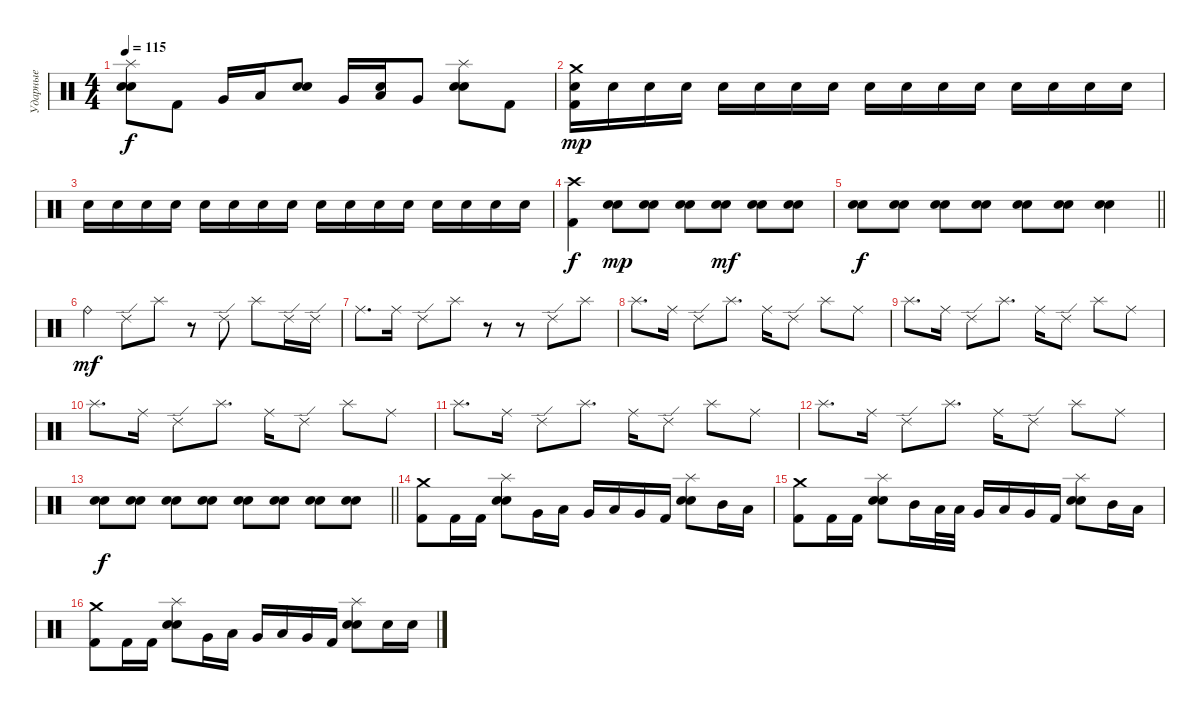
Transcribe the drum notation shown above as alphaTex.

\track ("Ударные" "Ударные") {instrument percussion}
\staff {score}
\articulation defaults
\ts (4 4)
\tempo 115
\clef neutral
\ks c
("Splash (hit)" "Electric Snare (hit)" "Snare (hit) 2").8{dy f} "Kick (hit) 2".8 "Very Low Tom (hit)".16 "Low Tom (hit)".16 ("Electric Snare (hit)" "Snare (hit) 2").8 "Very Low Tom (hit)".16 ("Electric Snare (hit)" "Low Tom (hit)").16 "Very Low Tom (hit)".8 ("Splash (hit)" "Electric Snare (hit)" "Snare (hit) 2").8 "Kick (hit) 2".8 |
("Crash medium (hit)" "Electric Snare (hit)" "Kick (hit) 2").16{dy mp} "Electric Snare (hit)".16 "Electric Snare (hit)".16 "Electric Snare (hit)".16 "Electric Snare (hit)".16 "Electric Snare (hit)".16 "Electric Snare (hit)".16 "Electric Snare (hit)".16 "Electric Snare (hit)".16 "Electric Snare (hit)".16 "Electric Snare (hit)".16 "Electric Snare (hit)".16 "Electric Snare (hit)".16 "Electric Snare (hit)".16 "Electric Snare (hit)".16 "Electric Snare (hit)".16 |
"Electric Snare (hit)".16 "Electric Snare (hit)".16 "Electric Snare (hit)".16 "Electric Snare (hit)".16 "Electric Snare (hit)".16 "Electric Snare (hit)".16 "Electric Snare (hit)".16 "Electric Snare (hit)".16 "Electric Snare (hit)".16 "Electric Snare (hit)".16 "Electric Snare (hit)".16 "Electric Snare (hit)".16 "Electric Snare (hit)".16 "Electric Snare (hit)".16 "Electric Snare (hit)".16 "Electric Snare (hit)".16 |
("Crash high (hit)" "Kick (hit) 2").4{dy f} ("Electric Snare (hit)" "Snare (hit) 2").8{dy mp} ("Electric Snare (hit)" "Snare (hit) 2").8 ("Electric Snare (hit)" "Snare (hit) 2").8 ("Electric Snare (hit)" "Snare (hit) 2").8{dy mf} ("Electric Snare (hit)" "Snare (hit) 2").8 ("Electric Snare (hit)" "Snare (hit) 2").8 |
\barLineRight lightlight
("Electric Snare (hit)" "Snare (hit) 2").8{dy f} ("Electric Snare (hit)" "Snare (hit) 2").8 ("Electric Snare (hit)" "Snare (hit) 2").8 ("Electric Snare (hit)" "Snare (hit) 2").8 ("Electric Snare (hit)" "Snare (hit) 2").8 ("Electric Snare (hit)" "Snare (hit) 2").8 ("Electric Snare (hit)" "Snare (hit) 2").4 |
"Ride (bell)".4{dy mf} "Ride (edge) 2".8 "Splash (hit)".8 r.8 "Ride (edge) 2".8 "Splash (hit)".8 "Ride (edge) 2".16 "Ride (edge) 2".16 |
"Ride (middle)".8{d} "Ride (middle)".16 "Ride (edge) 2".8 "Splash (hit)".8 r.8 r.8 "Ride (edge) 2".8 "Splash (hit)".8 |
"Splash (hit)".8{d} "Ride (middle)".16 "Ride (edge) 2".8 "Splash (hit)".8{d} "Ride (middle)".16 "Ride (edge) 2".8 "Splash (hit)".8 "Ride (middle)".8 |
"Splash (hit)".8{d} "Ride (middle)".16 "Ride (edge) 2".8 "Splash (hit)".8{d} "Ride (middle)".16 "Ride (edge) 2".8 "Splash (hit)".8 "Ride (middle)".8 |
"Splash (hit)".8{d} "Ride (middle)".16 "Ride (edge) 2".8 "Splash (hit)".8{d} "Ride (middle)".16 "Ride (edge) 2".8 "Splash (hit)".8 "Ride (middle)".8 |
"Splash (hit)".8{d} "Ride (middle)".16 "Ride (edge) 2".8 "Splash (hit)".8{d} "Ride (middle)".16 "Ride (edge) 2".8 "Splash (hit)".8 "Ride (middle)".8 |
"Splash (hit)".8{d} "Ride (middle)".16 "Ride (edge) 2".8 "Splash (hit)".8{d} "Ride (middle)".16 "Ride (edge) 2".8 "Splash (hit)".8 "Ride (middle)".8 |
\barLineRight lightlight
("Electric Snare (hit)" "Snare (hit) 2").8{dy f} ("Electric Snare (hit)" "Snare (hit) 2").8 ("Electric Snare (hit)" "Snare (hit) 2").8 ("Electric Snare (hit)" "Snare (hit) 2").8 ("Electric Snare (hit)" "Snare (hit) 2").8 ("Electric Snare (hit)" "Snare (hit) 2").8 ("Electric Snare (hit)" "Snare (hit) 2").8 ("Electric Snare (hit)" "Snare (hit) 2").8 |
("Crash medium (hit)" "Kick (hit) 2").8 "Kick (hit) 2".16 "Kick (hit) 2".16 ("Splash (hit)" "Electric Snare (hit)" "Snare (hit) 2").8 "Very Low Tom (hit)".16 "Low Tom (hit)".16 "Very Low Tom (hit)".16 "Low Tom (hit)".16 "Very Low Tom (hit)".16 "Kick (hit) 2".16 ("Splash (hit)" "Electric Snare (hit)" "Snare (hit) 2").8 "Mid Tom (hit)".16 "Low Tom (hit)".16 |
("Crash medium (hit)" "Kick (hit) 2").8 "Kick (hit) 2".16 "Kick (hit) 2".16 ("Splash (hit)" "Electric Snare (hit)" "Snare (hit) 2").8 "Mid Tom (hit)".16 "Low Tom (hit)".32 "Low Tom (hit)".32 "Very Low Tom (hit)".16 "Low Tom (hit)".16 "Very Low Tom (hit)".16 "Kick (hit) 2".16 ("Splash (hit)" "Electric Snare (hit)" "Snare (hit) 2").8 "Mid Tom (hit)".16 "Low Tom (hit)".16 |
("Crash medium (hit)" "Kick (hit) 2").8 "Kick (hit) 2".16 "Kick (hit) 2".16 ("Splash (hit)" "Electric Snare (hit)" "Snare (hit) 2").8 "Very Low Tom (hit)".16 "Low Tom (hit)".16 "Very Low Tom (hit)".16 "Low Tom (hit)".16 "Very Low Tom (hit)".16 "Kick (hit) 2".16 ("Splash (hit)" "Electric Snare (hit)" "Snare (hit) 2").8 "Electric Snare (hit)".16 "Electric Snare (hit)".16
